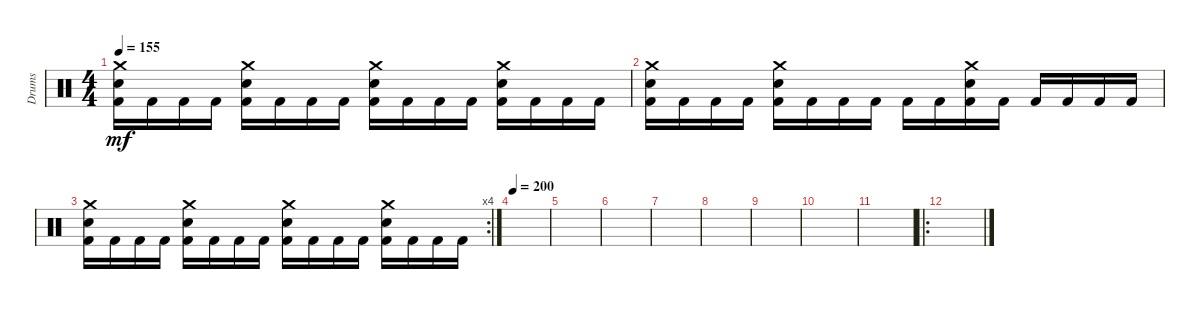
\track ("Drums" "Drums") {instrument percussion}
\staff {score}
\articulation defaults
\ts (4 4)
\tempo 155
\clef neutral
\ks c
("Kick (hit) 2" "Snare (hit) 2" "Crash medium (hit)").16{dy mf} "Kick (hit) 2".16 "Kick (hit) 2".16 "Kick (hit) 2".16 ("Kick (hit) 2" "Snare (hit) 2" "Crash medium (hit)").16 "Kick (hit) 2".16 "Kick (hit) 2".16 "Kick (hit) 2".16 ("Kick (hit) 2" "Snare (hit) 2" "Crash medium (hit)").16 "Kick (hit) 2".16 "Kick (hit) 2".16 "Kick (hit) 2".16 ("Kick (hit) 2" "Snare (hit) 2" "Crash medium (hit)").16 "Kick (hit) 2".16 "Kick (hit) 2".16 "Kick (hit) 2".16 |
("Kick (hit) 2" "Snare (hit) 2" "Crash medium (hit)").16 "Kick (hit) 2".16 "Kick (hit) 2".16 "Kick (hit) 2".16 ("Kick (hit) 2" "Snare (hit) 2" "Crash medium (hit)").16 "Kick (hit) 2".16 "Kick (hit) 2".16 "Kick (hit) 2".16 "Kick (hit) 2".16 "Kick (hit) 2".16 ("Kick (hit) 2" "Snare (hit) 2" "Crash medium (hit)").16 "Kick (hit) 2".16 "Kick (hit) 2".16 "Kick (hit) 2".16 "Kick (hit) 2".16 "Kick (hit) 2".16 |
\rc 4
("Kick (hit) 2" "Snare (hit) 2" "Crash medium (hit)").16 "Kick (hit) 2".16 "Kick (hit) 2".16 "Kick (hit) 2".16 ("Kick (hit) 2" "Snare (hit) 2" "Crash medium (hit)").16 "Kick (hit) 2".16 "Kick (hit) 2".16 "Kick (hit) 2".16 ("Kick (hit) 2" "Snare (hit) 2" "Crash medium (hit)").16 "Kick (hit) 2".16 "Kick (hit) 2".16 "Kick (hit) 2".16 ("Kick (hit) 2" "Snare (hit) 2" "Crash medium (hit)").16 "Kick (hit) 2".16 "Kick (hit) 2".16 "Kick (hit) 2".16 |
\tempo 260
\tempo 200
|
|
|
|
|
|
|
|
\ro
